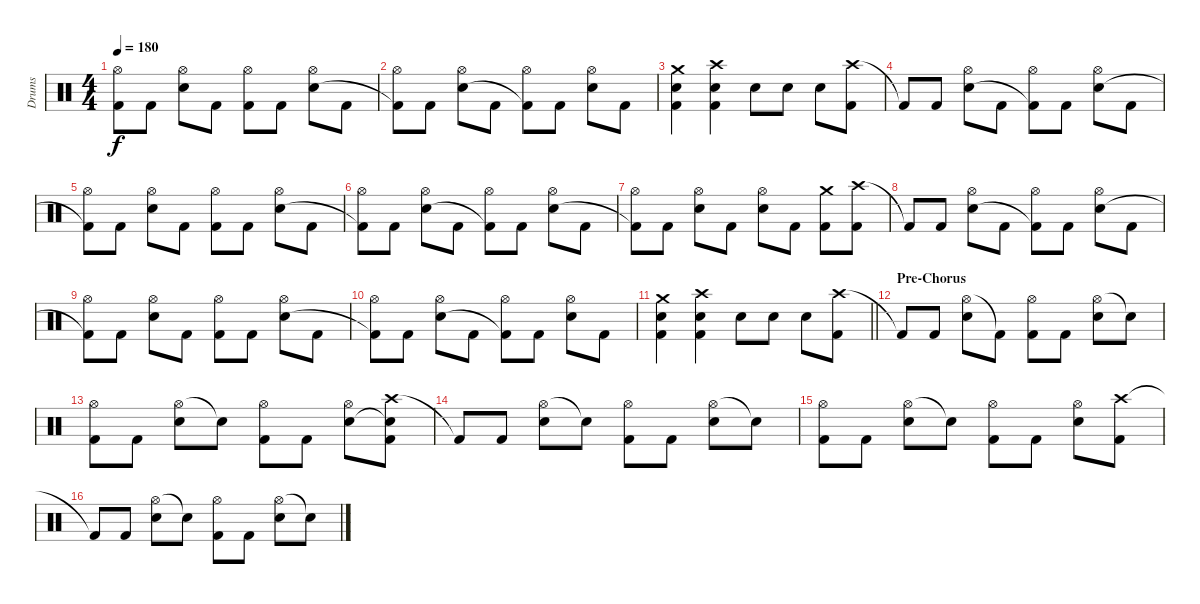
\track ("Drums" "Drums") {instrument percussion}
\staff {score}
\articulation defaults
\ts (4 4)
\tempo 180
\clef neutral
\ks c
("Hi-Hat (open)" "Kick (hit) 2"{t}).8{dy f} "Kick (hit) 2".8 ("Hi-Hat (open)" "Electric Snare (hit)").8 "Kick (hit) 2".8 ("Hi-Hat (open)" "Kick (hit) 2").8 "Kick (hit) 2".8 ("Hi-Hat (open)" "Electric Snare (hit)").8 "Kick (hit) 2".8 |
("Hi-Hat (open)" "Kick (hit) 2"{t}).8 "Kick (hit) 2".8 ("Hi-Hat (open)" "Electric Snare (hit)").8 "Kick (hit) 2".8 ("Hi-Hat (open)" "Kick (hit) 2"{t}).8 "Kick (hit) 2".8 ("Hi-Hat (open)" "Electric Snare (hit)").8 "Kick (hit) 2".8 |
("Crash medium (hit)" "Electric Snare (hit)" "Kick (hit) 2").4 ("Crash high (hit)" "Electric Snare (hit)" "Kick (hit) 2").4 "Electric Snare (hit)".8 "Electric Snare (hit)".8 "Electric Snare (hit)".8 ("Crash high (hit)" "Kick (hit) 2").8 |
"Kick (hit) 2"{t}.8 "Kick (hit) 2".8 ("Hi-Hat (open)" "Electric Snare (hit)").8 "Kick (hit) 2".8 ("Hi-Hat (open)" "Kick (hit) 2"{t}).8 "Kick (hit) 2".8 ("Hi-Hat (open)" "Electric Snare (hit)").8 "Kick (hit) 2".8 |
("Hi-Hat (open)" "Kick (hit) 2"{t}).8 "Kick (hit) 2".8 ("Hi-Hat (open)" "Electric Snare (hit)").8 "Kick (hit) 2".8 ("Hi-Hat (open)" "Kick (hit) 2").8 "Kick (hit) 2".8 ("Hi-Hat (open)" "Electric Snare (hit)").8 "Kick (hit) 2".8 |
("Hi-Hat (open)" "Kick (hit) 2"{t}).8 "Kick (hit) 2".8 ("Hi-Hat (open)" "Electric Snare (hit)").8 "Kick (hit) 2".8 ("Hi-Hat (open)" "Kick (hit) 2"{t}).8 "Kick (hit) 2".8 ("Hi-Hat (open)" "Electric Snare (hit)").8 "Kick (hit) 2".8 |
("Hi-Hat (open)" "Kick (hit) 2"{t}).8 "Kick (hit) 2".8 ("Hi-Hat (open)" "Electric Snare (hit)").8 "Kick (hit) 2".8 ("Hi-Hat (open)" "Electric Snare (hit)").8 "Kick (hit) 2".8 ("Crash medium (hit)" "Kick (hit) 2").8 ("Crash high (hit)" "Kick (hit) 2").8 |
"Kick (hit) 2"{t}.8 "Kick (hit) 2".8 ("Hi-Hat (open)" "Electric Snare (hit)").8 "Kick (hit) 2".8 ("Hi-Hat (open)" "Kick (hit) 2"{t}).8 "Kick (hit) 2".8 ("Hi-Hat (open)" "Electric Snare (hit)").8 "Kick (hit) 2".8 |
("Hi-Hat (open)" "Kick (hit) 2"{t}).8 "Kick (hit) 2".8 ("Hi-Hat (open)" "Electric Snare (hit)").8 "Kick (hit) 2".8 ("Hi-Hat (open)" "Kick (hit) 2").8 "Kick (hit) 2".8 ("Hi-Hat (open)" "Electric Snare (hit)").8 "Kick (hit) 2".8 |
("Hi-Hat (open)" "Kick (hit) 2"{t}).8 "Kick (hit) 2".8 ("Hi-Hat (open)" "Electric Snare (hit)").8 "Kick (hit) 2".8 ("Hi-Hat (open)" "Kick (hit) 2"{t}).8 "Kick (hit) 2".8 ("Hi-Hat (open)" "Electric Snare (hit)").8 "Kick (hit) 2".8 |
\barLineRight lightlight
("Crash medium (hit)" "Electric Snare (hit)" "Kick (hit) 2").4 ("Crash high (hit)" "Electric Snare (hit)" "Kick (hit) 2").4 "Electric Snare (hit)".8 "Electric Snare (hit)".8 "Electric Snare (hit)".8 ("Crash high (hit)" "Kick (hit) 2").8 |
\section ("" "Pre-Chorus")
"Kick (hit) 2"{t}.8 "Kick (hit) 2".8 ("Hi-Hat (open)" "Electric Snare (hit)").8 "Kick (hit) 2"{t}.8 ("Hi-Hat (open)" "Kick (hit) 2").8 "Kick (hit) 2".8 ("Hi-Hat (open)" "Electric Snare (hit)").8 "Snare (hit)"{t}.8 |
("Hi-Hat (open)" "Kick (hit) 2").8 "Kick (hit) 2".8 ("Hi-Hat (open)" "Electric Snare (hit)").8 "Snare (hit)"{t}.8 ("Hi-Hat (open)" "Kick (hit) 2").8 "Kick (hit) 2".8 ("Hi-Hat (open)" "Electric Snare (hit)").8 ("Crash high (hit)" "Snare (hit)"{t} "Kick (hit) 2").8 |
"Kick (hit) 2"{t}.8 "Kick (hit) 2".8 ("Hi-Hat (open)" "Electric Snare (hit)").8 "Snare (hit)"{t}.8 ("Hi-Hat (open)" "Kick (hit) 2").8 "Kick (hit) 2".8 ("Hi-Hat (open)" "Electric Snare (hit)").8 "Snare (hit)"{t}.8 |
("Hi-Hat (open)" "Kick (hit) 2").8 "Kick (hit) 2".8 ("Hi-Hat (open)" "Electric Snare (hit)").8 "Snare (hit)"{t}.8 ("Hi-Hat (open)" "Kick (hit) 2").8 "Kick (hit) 2".8 ("Hi-Hat (open)" "Electric Snare (hit)").8 ("Crash high (hit)" "Kick (hit) 2").8 |
"Kick (hit) 2"{t}.8 "Kick (hit) 2".8 ("Hi-Hat (open)" "Electric Snare (hit)").8 "Snare (hit)"{t}.8 ("Hi-Hat (open)" "Kick (hit) 2").8 "Kick (hit) 2".8 ("Hi-Hat (open)" "Electric Snare (hit)").8 "Snare (hit)"{t}.8
